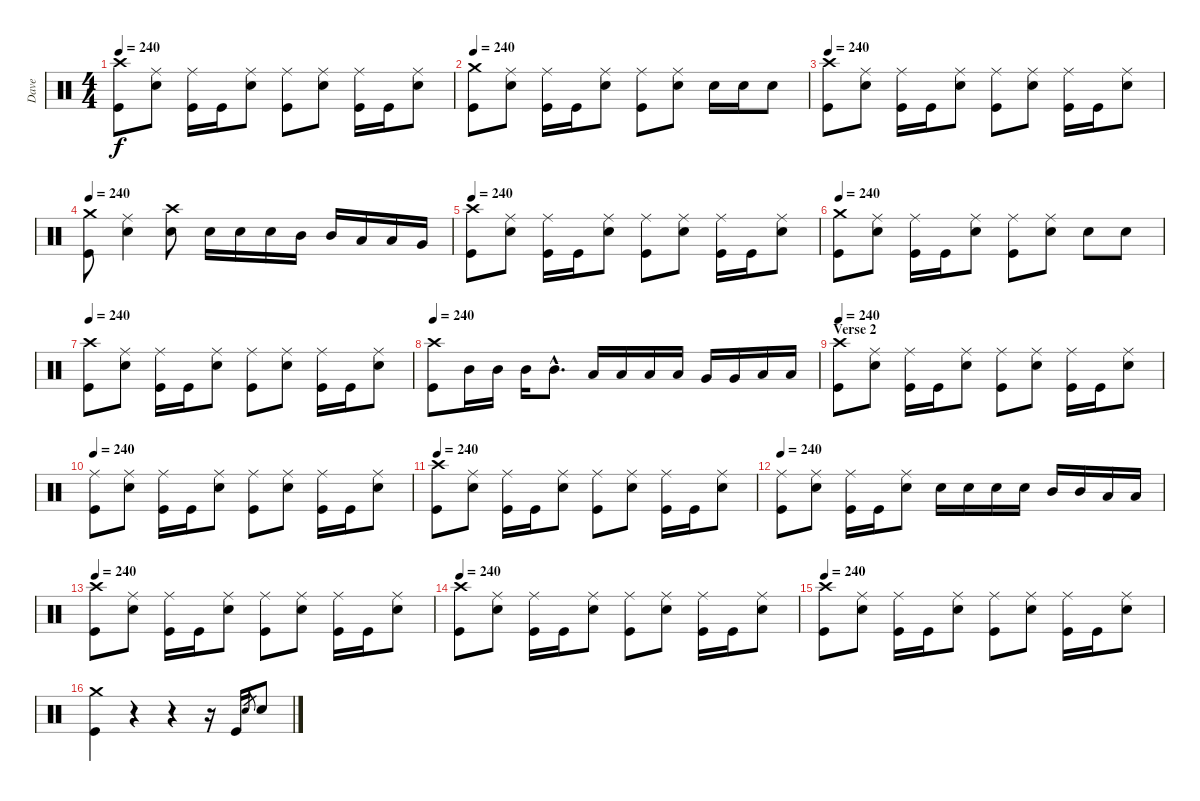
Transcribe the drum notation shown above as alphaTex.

\track ("Dave" "Dave") {instrument percussion}
\staff {score}
\articulation defaults
\ts (4 4)
\tempo 240
\clef neutral
\ks c
("Crash high (hit)" "Kick (hit)").8{dy f} ("Ride (middle)" "Snare (hit) 2").8 ("Ride (middle)" "Kick (hit)").16 "Kick (hit)".16 ("Ride (middle)" "Snare (hit) 2").8 ("Ride (middle)" "Kick (hit)").8 ("Ride (middle)" "Snare (hit) 2").8 ("Ride (middle)" "Kick (hit)").16 "Kick (hit)".16 ("Ride (middle)" "Snare (hit) 2").8 |
\tempo 240
("Crash medium (hit)" "Kick (hit)").8 ("Ride (middle)" "Snare (hit) 2").8 ("Ride (middle)" "Kick (hit)").16 "Kick (hit)".16 ("Ride (middle)" "Snare (hit) 2").8 ("Ride (middle)" "Kick (hit)").8 ("Ride (middle)" "Snare (hit) 2").8 "Snare (hit) 2".16 "Snare (hit) 2".16 "Snare (hit) 2".8 |
\tempo 240
("Crash high (hit)" "Kick (hit)").8 ("Ride (middle)" "Snare (hit) 2").8 ("Ride (middle)" "Kick (hit)").16 "Kick (hit)".16 ("Ride (middle)" "Snare (hit) 2").8 ("Ride (middle)" "Kick (hit)").8 ("Ride (middle)" "Snare (hit) 2").8 ("Ride (middle)" "Kick (hit)").16 "Kick (hit)".16 ("Ride (middle)" "Snare (hit) 2").8 |
\tempo 240
("Crash medium (hit)" "Kick (hit)").8 ("Ride (middle)" "Snare (hit) 2").4 ("Crash high (hit)" "Snare (hit) 2").8 "Snare (hit) 2".16 "Snare (hit) 2".16 "Snare (hit) 2".16 "Mid Tom (hit)".16 "Mid Tom (hit)".16 "Low Tom (hit)".16 "Low Tom (hit)".16 "Very Low Tom (hit)".16 |
\tempo 240
("Crash high (hit)" "Kick (hit)").8 ("Ride (middle)" "Snare (hit) 2").8 ("Ride (middle)" "Kick (hit)").16 "Kick (hit)".16 ("Ride (middle)" "Snare (hit) 2").8 ("Ride (middle)" "Kick (hit)").8 ("Ride (middle)" "Snare (hit) 2").8 ("Ride (middle)" "Kick (hit)").16 "Kick (hit)".16 ("Ride (middle)" "Snare (hit) 2").8 |
\tempo 240
("Crash medium (hit)" "Kick (hit)").8 ("Ride (middle)" "Snare (hit) 2").8 ("Ride (middle)" "Kick (hit)").16 "Kick (hit)".16 ("Ride (middle)" "Snare (hit) 2").8 ("Ride (middle)" "Kick (hit)").8 ("Ride (middle)" "Snare (hit) 2").8 "Snare (hit) 2".8 "Snare (hit) 2".8 |
\tempo 240
("Crash high (hit)" "Kick (hit)").8 ("Ride (middle)" "Snare (hit) 2").8 ("Ride (middle)" "Kick (hit)").16 "Kick (hit)".16 ("Ride (middle)" "Snare (hit) 2").8 ("Ride (middle)" "Kick (hit)").8 ("Ride (middle)" "Snare (hit) 2").8 ("Ride (middle)" "Kick (hit)").16 "Kick (hit)".16 ("Ride (middle)" "Snare (hit) 2").8 |
\tempo 240
("Crash high (hit)" "Kick (hit)").8 "Mid Tom (hit)".16 "Mid Tom (hit)".16 "Mid Tom (hit)".16 "Mid Tom (hit)"{hac}.8{d} "Low Tom (hit)".16 "Low Tom (hit)".16 "Low Tom (hit)".16 "Low Tom (hit)".16 "Very Low Tom (hit)".16 "Very Low Tom (hit)".16 "Low Floor Tom (hit)".16 "Low Floor Tom (hit)".16 |
\section ("" "Verse 2")
\tempo 240
("Crash high (hit)" "Kick (hit)").8 ("Ride (middle)" "Snare (hit) 2").8 ("Ride (middle)" "Kick (hit)").16 "Kick (hit)".16 ("Ride (middle)" "Snare (hit) 2").8 ("Ride (middle)" "Kick (hit)").8 ("Ride (middle)" "Snare (hit) 2").8 ("Ride (middle)" "Kick (hit)").16 "Kick (hit)".16 ("Ride (middle)" "Snare (hit) 2").8 |
\tempo 240
("Ride (middle)" "Kick (hit)").8 ("Ride (middle)" "Snare (hit) 2").8 ("Ride (middle)" "Kick (hit)").16 "Kick (hit)".16 ("Ride (middle)" "Snare (hit) 2").8 ("Ride (middle)" "Kick (hit)").8 ("Ride (middle)" "Snare (hit) 2").8 ("Ride (middle)" "Kick (hit)").16 "Kick (hit)".16 ("Ride (middle)" "Snare (hit) 2").8 |
\tempo 240
("Crash high (hit)" "Kick (hit)").8 ("Ride (middle)" "Snare (hit) 2").8 ("Ride (middle)" "Kick (hit)").16 "Kick (hit)".16 ("Ride (middle)" "Snare (hit) 2").8 ("Ride (middle)" "Kick (hit)").8 ("Ride (middle)" "Snare (hit) 2").8 ("Ride (middle)" "Kick (hit)").16 "Kick (hit)".16 ("Ride (middle)" "Snare (hit) 2").8 |
\tempo 240
("Ride (middle)" "Kick (hit)").8 ("Ride (middle)" "Snare (hit) 2").8 ("Ride (middle)" "Kick (hit)").16 "Kick (hit)".16 ("Ride (middle)" "Snare (hit) 2").8 "Snare (hit) 2".16 "Snare (hit) 2".16 "Snare (hit) 2".16 "Snare (hit) 2".16 "Mid Tom (hit)".16 "Mid Tom (hit)".16 "Low Tom (hit)".16 "Low Tom (hit)".16 |
\tempo 240
("Crash high (hit)" "Kick (hit)").8 ("Ride (middle)" "Snare (hit) 2").8 ("Ride (middle)" "Kick (hit)").16 "Kick (hit)".16 ("Ride (middle)" "Snare (hit) 2").8 ("Ride (middle)" "Kick (hit)").8 ("Ride (middle)" "Snare (hit) 2").8 ("Ride (middle)" "Kick (hit)").16 "Kick (hit)".16 ("Ride (middle)" "Snare (hit) 2").8 |
\tempo 240
("Crash high (hit)" "Kick (hit)").8 ("Ride (middle)" "Snare (hit) 2").8 ("Ride (middle)" "Kick (hit)").16 "Kick (hit)".16 ("Ride (middle)" "Snare (hit) 2").8 ("Ride (middle)" "Kick (hit)").8 ("Ride (middle)" "Snare (hit) 2").8 ("Ride (middle)" "Kick (hit)").16 "Kick (hit)".16 ("Ride (middle)" "Snare (hit) 2").8 |
\tempo 240
("Crash high (hit)" "Kick (hit)").8 ("Ride (middle)" "Snare (hit) 2").8 ("Ride (middle)" "Kick (hit)").16 "Kick (hit)".16 ("Ride (middle)" "Snare (hit) 2").8 ("Ride (middle)" "Kick (hit)").8 ("Ride (middle)" "Snare (hit) 2").8 ("Ride (middle)" "Kick (hit)").16 "Kick (hit)".16 ("Ride (middle)" "Snare (hit) 2").8 |
("Crash medium (hit)" "Kick (hit)").4 r.4 r.4 r.16 "Kick (hit)".16 "Snare (hit) 2".8{gr} "Snare (hit) 2".8
